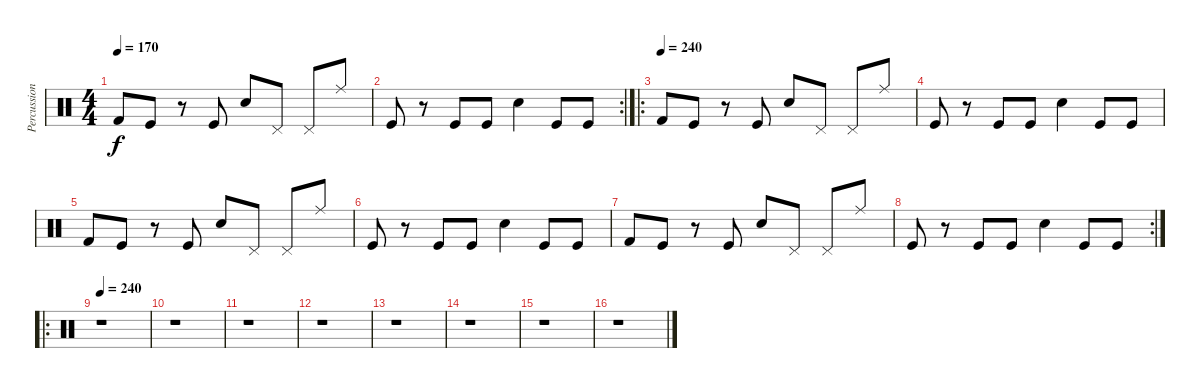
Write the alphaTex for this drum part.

\track ("Percussion" "Percussion") {instrument percussion}
\staff {score}
\articulation defaults
\ts (4 4)
\tempo 170
\clef neutral
\ks c "Kick (hit) 2".8{dy f} "Kick (hit)".8
r.8 "Kick (hit)".8 "Electric Snare (hit)".8 "Pedal Hi-Hat (hit)".8 "Pedal Hi-Hat (hit)".8 "Ride (middle)".8 |
\rc 2 "Kick (hit)".8
r.8 "Kick (hit)".8 "Kick (hit)".8 "Electric Snare (hit)".4 "Kick (hit)".8 "Kick (hit)".8 |
\ro
\tempo (240)
"Kick (hit) 2".8{volume 0} "Kick (hit)".8 r.8 "Kick (hit)".8 "Electric Snare (hit)".8 "Pedal Hi-Hat (hit)".8 "Pedal Hi-Hat (hit)".8 "Ride (middle)".8 |
"Kick (hit)".8 r.8 "Kick (hit)".8 "Kick (hit)".8 "Electric Snare (hit)".4 "Kick (hit)".8 "Kick (hit)".8 |
"Kick (hit) 2".8 "Kick (hit)".8 r.8 "Kick (hit)".8 "Electric Snare (hit)".8 "Pedal Hi-Hat (hit)".8 "Pedal Hi-Hat (hit)".8 "Ride (middle)".8 |
"Kick (hit)".8 r.8 "Kick (hit)".8 "Kick (hit)".8 "Electric Snare (hit)".4 "Kick (hit)".8 "Kick (hit)".8 |
"Kick (hit) 2".8 "Kick (hit)".8 r.8 "Kick (hit)".8 "Electric Snare (hit)".8 "Pedal Hi-Hat (hit)".8 "Pedal Hi-Hat (hit)".8 "Ride (middle)".8 |
\rc 2 "Kick (hit)".8
r.8 "Kick (hit)".8 "Kick (hit)".8 "Electric Snare (hit)".4 "Kick (hit)".8 "Kick (hit)".8 |
\ro
\tempo 240
r.1 |
r.1 |
r.1 |
r.1 |
r.1 |
r.1 |
r.1 |
r.1
